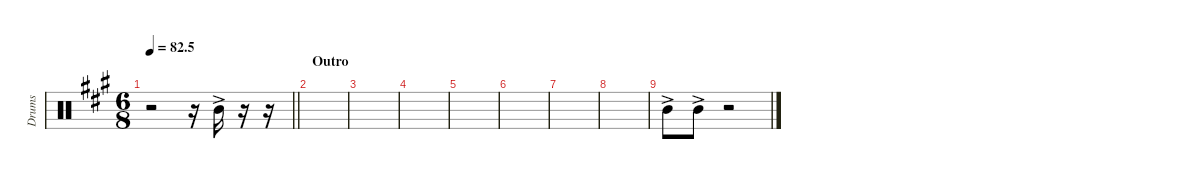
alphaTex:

\defaultSystemsLayout 4
\hideDynamics
\bracketExtendMode nobrackets
\otherSystemsTrackNameOrientation horizontal
\track ("Tom 02" "Drums") {instrument percussion}
\staff {score}
\articulation defaults
\ts (6 8)
\tempo
82.5
\accidentals auto
\clef neutral
\ottava regular
\simile none
\scale
0.333333
\barLineRight lightlight
\ks a
r.2{dy f} r.16 "Mid Tom (hit)"{ac acc forcenatural}.16 r.16 r.16 |
\section ("" "Outro")
\scale
0.333333 |
\scale
0.333333 |
\scale
0.333333 |
\scale
0.333333 |
\scale
0.333333 |
\scale
0.333333 |
\scale
0.333333 |
\scale
0.333333 "Mid Tom (hit)"{ac acc forcenatural}.8 "Mid Tom (hit)"{ac acc forcenatural}.8 r.2 |
\scale
0.333333 |
\scale
0.333333 |
\scale
0.333333
